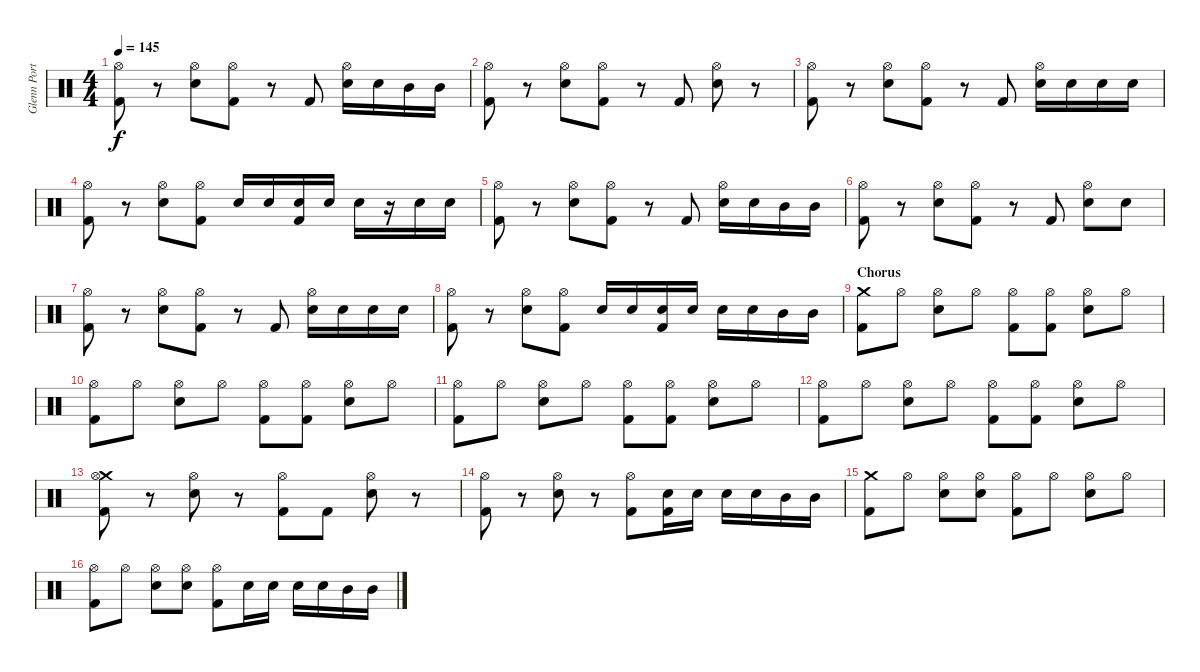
\track ("Glenn Porter - Drums" "Glenn Port") {instrument percussion}
\staff {score}
\articulation defaults
\ts (4 4)
\tempo 145
\clef neutral
\ks c
("Hi-Hat (open)" "Kick (hit) 2").8{dy f} r.8 ("Hi-Hat (open)" "Electric Snare (hit)").8 ("Hi-Hat (open)" "Kick (hit) 2").8 r.8 "Kick (hit) 2".8 ("Hi-Hat (open)" "Electric Snare (hit)").16 "Electric Snare (hit)".16 "Mid Tom (hit)".16 "Mid Tom (hit)".16 |
("Hi-Hat (open)" "Kick (hit) 2").8 r.8 ("Hi-Hat (open)" "Electric Snare (hit)").8 ("Hi-Hat (open)" "Kick (hit) 2").8 r.8 "Kick (hit) 2".8 ("Hi-Hat (open)" "Electric Snare (hit)").8 r.8 |
("Hi-Hat (open)" "Kick (hit) 2").8 r.8 ("Hi-Hat (open)" "Electric Snare (hit)").8 ("Hi-Hat (open)" "Kick (hit) 2").8 r.8 "Kick (hit) 2".8 ("Hi-Hat (open)" "Electric Snare (hit)").16 "Electric Snare (hit)".16 "Electric Snare (hit)".16 "Electric Snare (hit)".16 |
("Hi-Hat (open)" "Kick (hit) 2").8 r.8 ("Hi-Hat (open)" "Electric Snare (hit)").8 ("Hi-Hat (open)" "Kick (hit) 2").8 "Electric Snare (hit)".16 "Electric Snare (hit)".16 ("Electric Snare (hit)" "Kick (hit) 2").16 "Electric Snare (hit)".16 "Electric Snare (hit)".16 r.16 "Electric Snare (hit)".16 "Electric Snare (hit)".16 |
("Hi-Hat (open)" "Kick (hit) 2").8 r.8 ("Hi-Hat (open)" "Electric Snare (hit)").8 ("Hi-Hat (open)" "Kick (hit) 2").8 r.8 "Kick (hit) 2".8 ("Hi-Hat (open)" "Electric Snare (hit)").16 "Electric Snare (hit)".16 "Mid Tom (hit)".16 "Mid Tom (hit)".16 |
("Hi-Hat (open)" "Kick (hit) 2").8 r.8 ("Hi-Hat (open)" "Electric Snare (hit)").8 ("Hi-Hat (open)" "Kick (hit) 2").8 r.8 "Kick (hit) 2".8 ("Hi-Hat (open)" "Electric Snare (hit)").8 "Electric Snare (hit)".8 |
("Hi-Hat (open)" "Kick (hit) 2").8 r.8 ("Hi-Hat (open)" "Electric Snare (hit)").8 ("Hi-Hat (open)" "Kick (hit) 2").8 r.8 "Kick (hit) 2".8 ("Hi-Hat (open)" "Electric Snare (hit)").16 "Electric Snare (hit)".16 "Electric Snare (hit)".16 "Electric Snare (hit)".16 |
("Hi-Hat (open)" "Kick (hit) 2").8 r.8 ("Hi-Hat (open)" "Electric Snare (hit)").8 ("Hi-Hat (open)" "Kick (hit) 2").8 "Electric Snare (hit)".16 "Electric Snare (hit)".16 ("Electric Snare (hit)" "Kick (hit) 2").16 "Electric Snare (hit)".16 "Electric Snare (hit)".16 "Electric Snare (hit)".16 "Mid Tom (hit)".16 "Mid Tom (hit)".16 |
\section ("" "Chorus")
("Crash medium (hit)" "Kick (hit) 2").8 "Hi-Hat (open)".8 ("Hi-Hat (open)" "Electric Snare (hit)").8 "Hi-Hat (open)".8 ("Hi-Hat (open)" "Kick (hit) 2").8 ("Hi-Hat (open)" "Kick (hit) 2").8 ("Hi-Hat (open)" "Electric Snare (hit)").8 "Hi-Hat (open)".8 |
("Hi-Hat (open)" "Kick (hit) 2").8 "Hi-Hat (open)".8 ("Hi-Hat (open)" "Electric Snare (hit)").8 "Hi-Hat (open)".8 ("Hi-Hat (open)" "Kick (hit) 2").8 ("Hi-Hat (open)" "Kick (hit) 2").8 ("Hi-Hat (open)" "Electric Snare (hit)").8 "Hi-Hat (open)".8 |
("Hi-Hat (open)" "Kick (hit) 2").8 "Hi-Hat (open)".8 ("Hi-Hat (open)" "Electric Snare (hit)").8 "Hi-Hat (open)".8 ("Hi-Hat (open)" "Kick (hit) 2").8 ("Hi-Hat (open)" "Kick (hit) 2").8 ("Hi-Hat (open)" "Electric Snare (hit)").8 "Hi-Hat (open)".8 |
("Hi-Hat (open)" "Kick (hit) 2").8 "Hi-Hat (open)".8 ("Hi-Hat (open)" "Electric Snare (hit)").8 "Hi-Hat (open)".8 ("Hi-Hat (open)" "Kick (hit) 2").8 ("Hi-Hat (open)" "Kick (hit) 2").8 ("Hi-Hat (open)" "Electric Snare (hit)").8 "Hi-Hat (open)".8 |
("Crash medium (hit)" "Hi-Hat (open)" "Kick (hit) 2").8 r.8 ("Hi-Hat (open)" "Electric Snare (hit)").8 r.8 ("Hi-Hat (open)" "Kick (hit) 2").8 "Kick (hit) 2".8 ("Hi-Hat (open)" "Electric Snare (hit)").8 r.8 |
("Hi-Hat (open)" "Kick (hit) 2").8 r.8 ("Hi-Hat (open)" "Electric Snare (hit)").8 r.8 ("Hi-Hat (open)" "Kick (hit) 2").8 ("Electric Snare (hit)" "Kick (hit) 2").16 "Electric Snare (hit)".16 "Electric Snare (hit)".16 "Electric Snare (hit)".16 "Mid Tom (hit)".16 "Mid Tom (hit)".16 |
("Crash medium (hit)" "Kick (hit) 2").8 "Hi-Hat (open)".8 ("Hi-Hat (open)" "Electric Snare (hit)").8 ("Hi-Hat (open)" "Electric Snare (hit)").8 ("Hi-Hat (open)" "Kick (hit) 2").8 "Hi-Hat (open)".8 ("Hi-Hat (open)" "Electric Snare (hit)").8 "Hi-Hat (open)".8 |
("Hi-Hat (open)" "Kick (hit) 2").8 "Hi-Hat (open)".8 ("Hi-Hat (open)" "Electric Snare (hit)").8 ("Hi-Hat (open)" "Electric Snare (hit)").8 ("Hi-Hat (open)" "Kick (hit) 2").8 "Electric Snare (hit)".16 "Electric Snare (hit)".16 "Electric Snare (hit)".16 "Electric Snare (hit)".16 "Mid Tom (hit)".16 "Mid Tom (hit)".16
